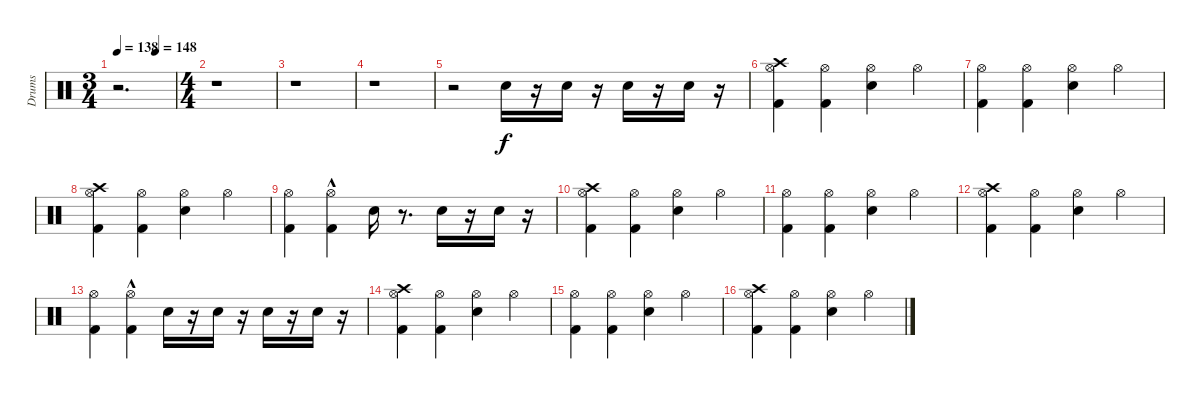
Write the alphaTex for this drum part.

\track ("Drums" "Drums") {instrument percussion}
\staff {score}
\articulation defaults
\ts (3 4)
\tempo 138
\tempo (148 0.6666666666666666)
\clef neutral
\ks c
r.2{d dy f} |
\ts (4 4)
r.1 |
r.1 |
r.1 |
r.2 "Snare (hit) 2".16 r.16 "Snare (hit) 2".16 r.16 "Snare (hit) 2".16 r.16 "Snare (hit) 2".16 r.16 |
("Hi-Hat (open)" "Kick (hit) 2" "Crash high (hit)").4 ("Kick (hit) 2" "Hi-Hat (open)").4 ("Hi-Hat (open)" "Snare (hit) 2").4 "Hi-Hat (open)".4 |
("Hi-Hat (open)" "Kick (hit) 2").4 ("Hi-Hat (open)" "Kick (hit) 2").4 ("Hi-Hat (open)" "Snare (hit) 2").4 "Hi-Hat (open)".4 |
("Crash high (hit)" "Hi-Hat (open)" "Kick (hit) 2").4 ("Hi-Hat (open)" "Kick (hit) 2").4 ("Hi-Hat (open)" "Snare (hit) 2").4 "Hi-Hat (open)".4 |
("Hi-Hat (open)" "Kick (hit) 2").4 ("Hi-Hat (open)"{hac} "Kick (hit) 2").4 "Snare (hit) 2".16 r.8{d} "Snare (hit) 2".16 r.16 "Snare (hit) 2".16 r.16 |
("Hi-Hat (open)" "Kick (hit) 2" "Crash high (hit)").4 ("Kick (hit) 2" "Hi-Hat (open)").4 ("Hi-Hat (open)" "Snare (hit) 2").4 "Hi-Hat (open)".4 |
("Hi-Hat (open)" "Kick (hit) 2").4 ("Hi-Hat (open)" "Kick (hit) 2").4 ("Hi-Hat (open)" "Snare (hit) 2").4 "Hi-Hat (open)".4 |
("Crash high (hit)" "Hi-Hat (open)" "Kick (hit) 2").4 ("Hi-Hat (open)" "Kick (hit) 2").4 ("Hi-Hat (open)" "Snare (hit) 2").4 "Hi-Hat (open)".4 |
("Hi-Hat (open)" "Kick (hit) 2").4 ("Hi-Hat (open)"{hac} "Kick (hit) 2").4 "Snare (hit) 2".16 r.16 "Snare (hit) 2".16 r.16 "Snare (hit) 2".16 r.16 "Snare (hit) 2".16 r.16 |
("Hi-Hat (open)" "Kick (hit) 2" "Crash high (hit)").4 ("Kick (hit) 2" "Hi-Hat (open)").4 ("Hi-Hat (open)" "Snare (hit) 2").4 "Hi-Hat (open)".4 |
("Hi-Hat (open)" "Kick (hit) 2").4 ("Hi-Hat (open)" "Kick (hit) 2").4 ("Hi-Hat (open)" "Snare (hit) 2").4 "Hi-Hat (open)".4 |
("Crash high (hit)" "Hi-Hat (open)" "Kick (hit) 2").4 ("Hi-Hat (open)" "Kick (hit) 2").4 ("Hi-Hat (open)" "Snare (hit) 2").4 "Hi-Hat (open)".4
